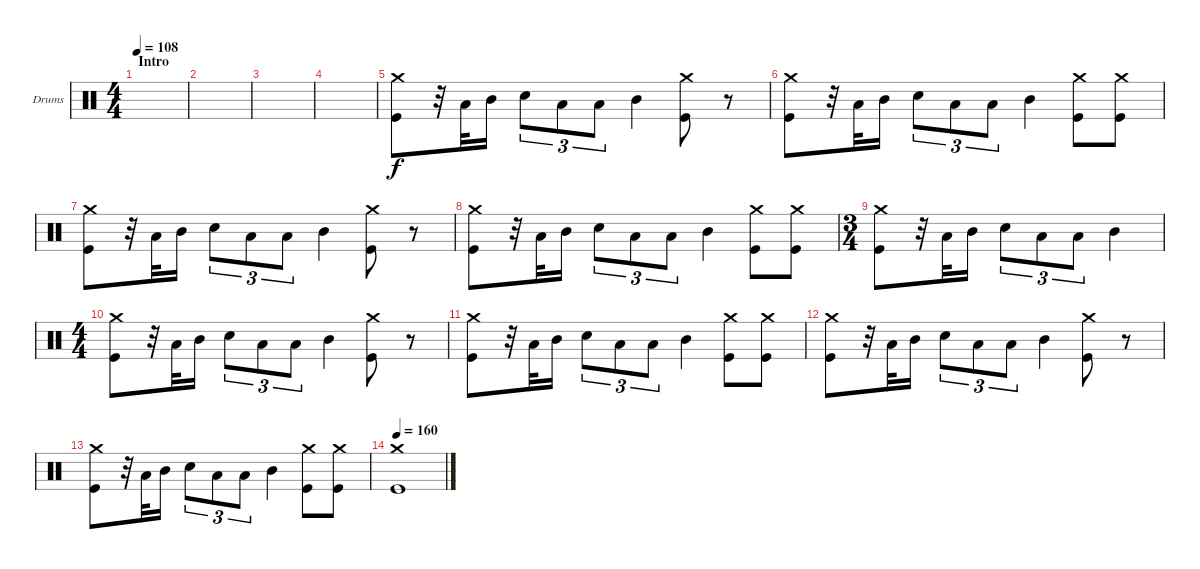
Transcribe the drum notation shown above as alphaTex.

\bracketExtendMode groupsimilarinstruments
\firstSystemTrackNameOrientation horizontal
\otherSystemsTrackNameOrientation horizontal
\track ("Drums" "Drums") {instrument percussion}
\staff {score}
\articulation defaults
\ts (4 4)
\section ("" "Intro")
\tempo 108
\clef neutral
\ks c
|
|
|
|
("Crash medium (hit)" "Kick (hit)").8 r.32 "Low Tom (hit)".32 "Mid Tom (hit)".16 "Snare (hit) 2".8{tu (3 2)} "Low Tom (hit)".8{tu (3 2)} "Low Tom (hit)".8{tu (3 2)} "Mid Tom (hit)".4 ("Crash medium (hit)" "Kick (hit)").8 r.8 |
("Crash medium (hit)" "Kick (hit)").8 r.32 "Low Tom (hit)".32 "Mid Tom (hit)".16 "Snare (hit) 2".8{tu (3 2)} "Low Tom (hit)".8{tu (3 2)} "Low Tom (hit)".8{tu (3 2)} "Mid Tom (hit)".4 ("Crash medium (hit)" "Kick (hit)").8 ("Crash medium (hit)" "Kick (hit)").8 |
("Crash medium (hit)" "Kick (hit)").8 r.32 "Low Tom (hit)".32 "Mid Tom (hit)".16 "Snare (hit) 2".8{tu (3 2)} "Low Tom (hit)".8{tu (3 2)} "Low Tom (hit)".8{tu (3 2)} "Mid Tom (hit)".4 ("Crash medium (hit)" "Kick (hit)").8 r.8 |
("Crash medium (hit)" "Kick (hit)").8 r.32 "Low Tom (hit)".32 "Mid Tom (hit)".16 "Snare (hit) 2".8{tu (3 2)} "Low Tom (hit)".8{tu (3 2)} "Low Tom (hit)".8{tu (3 2)} "Mid Tom (hit)".4 ("Crash medium (hit)" "Kick (hit)").8 ("Crash medium (hit)" "Kick (hit)").8 |
\ts (3 4)
("Crash medium (hit)" "Kick (hit)").8 r.32 "Low Tom (hit)".32 "Mid Tom (hit)".16 "Snare (hit) 2".8{tu (3 2)} "Low Tom (hit)".8{tu (3 2)} "Low Tom (hit)".8{tu (3 2)} "Mid Tom (hit)".4 |
\ts (4 4)
("Crash medium (hit)" "Kick (hit)").8 r.32 "Low Tom (hit)".32 "Mid Tom (hit)".16 "Snare (hit) 2".8{tu (3 2)} "Low Tom (hit)".8{tu (3 2)} "Low Tom (hit)".8{tu (3 2)} "Mid Tom (hit)".4 ("Crash medium (hit)" "Kick (hit)").8 r.8 |
("Crash medium (hit)" "Kick (hit)").8 r.32 "Low Tom (hit)".32 "Mid Tom (hit)".16 "Snare (hit) 2".8{tu (3 2)} "Low Tom (hit)".8{tu (3 2)} "Low Tom (hit)".8{tu (3 2)} "Mid Tom (hit)".4 ("Crash medium (hit)" "Kick (hit)").8 ("Crash medium (hit)" "Kick (hit)").8 |
("Crash medium (hit)" "Kick (hit)").8 r.32 "Low Tom (hit)".32 "Mid Tom (hit)".16 "Snare (hit) 2".8{tu (3 2)} "Low Tom (hit)".8{tu (3 2)} "Low Tom (hit)".8{tu (3 2)} "Mid Tom (hit)".4 ("Crash medium (hit)" "Kick (hit)").8 r.8 |
("Crash medium (hit)" "Kick (hit)").8 r.32 "Low Tom (hit)".32 "Mid Tom (hit)".16 "Snare (hit) 2".8{tu (3 2)} "Low Tom (hit)".8{tu (3 2)} "Low Tom (hit)".8{tu (3 2)} "Mid Tom (hit)".4 ("Crash medium (hit)" "Kick (hit)").8 ("Crash medium (hit)" "Kick (hit)").8 |
\tempo 160
("Crash medium (hit)" "Kick (hit)").1
